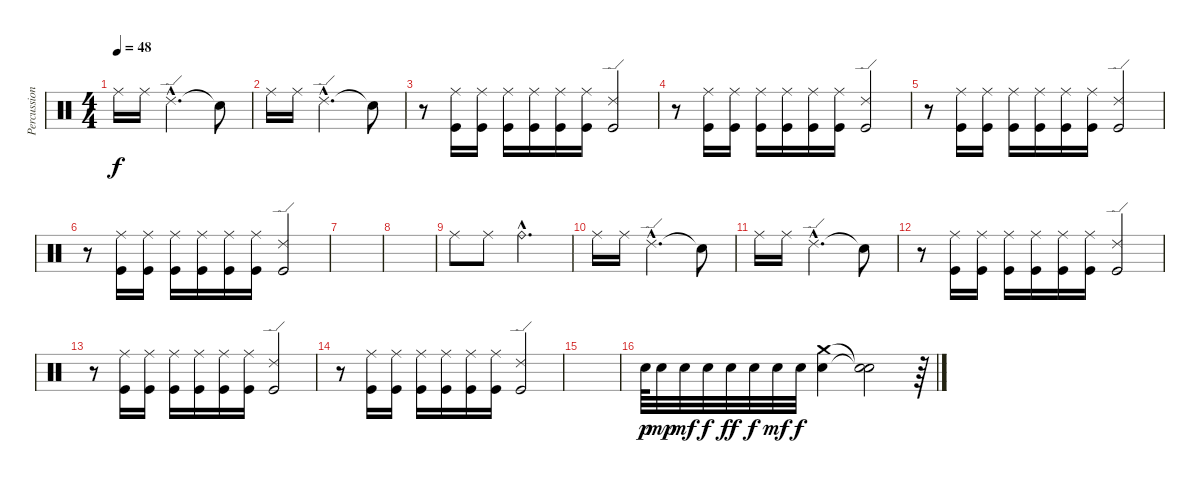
\track ("Percussions" "Percussion") {instrument percussion}
\staff {score}
\articulation defaults
\ts (4 4)
\tempo 48
\clef neutral
\ks c "Ride (middle)".16{dy f} "Ride (middle)".16 "Ride (edge) 2"{hac}.2{d} "Snare (hit)"{t}.8
|
"Ride (middle)".16 "Ride (middle)".16 "Ride (edge) 2"{hac}.2{d} "Snare (hit)"{t}.8 |
r.8 ("Ride (middle)" "Kick (hit)").16 ("Ride (middle)" "Kick (hit)").16 ("Ride (middle)" "Kick (hit)").16 ("Ride (middle)" "Kick (hit)").16 ("Ride (middle)" "Kick (hit)").16 ("Ride (middle)" "Kick (hit)").16 ("Ride (edge) 2" "Kick (hit)").2 |
r.8 ("Ride (middle)" "Kick (hit)").16 ("Ride (middle)" "Kick (hit)").16 ("Ride (middle)" "Kick (hit)").16 ("Ride (middle)" "Kick (hit)").16 ("Ride (middle)" "Kick (hit)").16 ("Ride (middle)" "Kick (hit)").16 ("Ride (edge) 2" "Kick (hit)").2 |
r.8 ("Ride (middle)" "Kick (hit)").16 ("Ride (middle)" "Kick (hit)").16 ("Ride (middle)" "Kick (hit)").16 ("Ride (middle)" "Kick (hit)").16 ("Ride (middle)" "Kick (hit)").16 ("Ride (middle)" "Kick (hit)").16 ("Ride (edge) 2" "Kick (hit)").2 |
r.8 ("Ride (middle)" "Kick (hit)").16 ("Ride (middle)" "Kick (hit)").16 ("Ride (middle)" "Kick (hit)").16 ("Ride (middle)" "Kick (hit)").16 ("Ride (middle)" "Kick (hit)").16 ("Ride (middle)" "Kick (hit)").16 ("Ride (edge) 2" "Kick (hit)").2 |
|
|
"Ride (middle)".8 "Ride (middle)".8 "Ride (bell)"{hac}.2{d} |
"Ride (middle)".16 "Ride (middle)".16 "Ride (edge) 2"{hac}.2{d} "Snare (hit)"{t}.8 |
"Ride (middle)".16 "Ride (middle)".16 "Ride (edge) 2"{hac}.2{d} "Snare (hit)"{t}.8 |
r.8 ("Ride (middle)" "Kick (hit)").16 ("Ride (middle)" "Kick (hit)").16 ("Ride (middle)" "Kick (hit)").16 ("Ride (middle)" "Kick (hit)").16 ("Ride (middle)" "Kick (hit)").16 ("Ride (middle)" "Kick (hit)").16 ("Ride (edge) 2" "Kick (hit)").2 |
r.8 ("Ride (middle)" "Kick (hit)").16 ("Ride (middle)" "Kick (hit)").16 ("Ride (middle)" "Kick (hit)").16 ("Ride (middle)" "Kick (hit)").16 ("Ride (middle)" "Kick (hit)").16 ("Ride (middle)" "Kick (hit)").16 ("Ride (edge) 2" "Kick (hit)").2 |
r.8 ("Ride (middle)" "Kick (hit)").16 ("Ride (middle)" "Kick (hit)").16 ("Ride (middle)" "Kick (hit)").16 ("Ride (middle)" "Kick (hit)").16 ("Ride (middle)" "Kick (hit)").16 ("Ride (middle)" "Kick (hit)").16 ("Ride (edge) 2" "Kick (hit)").2 |
|
"Electric Snare (hit)".64{dy p} "Electric Snare (hit)".32{dy mp} "Electric Snare (hit)".32{dy mf} "Electric Snare (hit)".32{dy f} "Electric Snare (hit)".32{dy ff} "Electric Snare (hit)".32{dy f} "Electric Snare (hit)".32{dy mf} "Electric Snare (hit)".32{dy f} ("Crash medium (hit)" "Electric Snare (hit)").4 ("Snare (hit)"{t} "Snare (hit)"{t}).2 r.64
